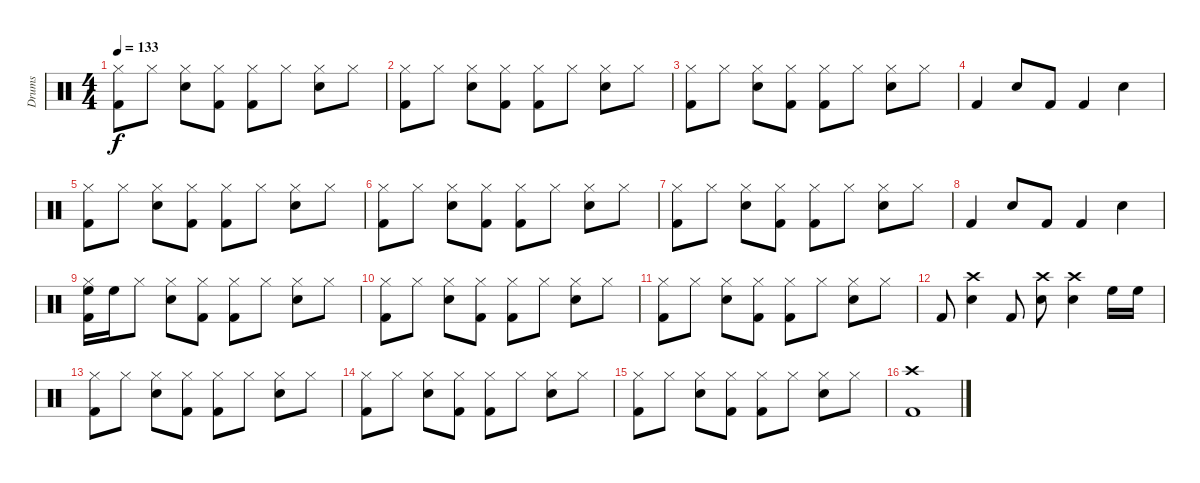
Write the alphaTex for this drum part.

\track ("Drums" "Drums") {instrument percussion}
\staff {score}
\articulation defaults
\ts (4 4)
\tempo 133
\clef neutral
\ks c
("Kick (hit) 2" "Hi-Hat (closed)").8{dy f} "Hi-Hat (closed)".8 ("Snare (hit) 2" "Hi-Hat (closed)").8 ("Kick (hit) 2" "Hi-Hat (closed)").8 ("Kick (hit) 2" "Hi-Hat (closed)").8 "Hi-Hat (closed)".8 ("Snare (hit) 2" "Hi-Hat (closed)").8 "Hi-Hat (closed)".8 |
("Kick (hit) 2" "Hi-Hat (closed)").8 "Hi-Hat (closed)".8 ("Snare (hit) 2" "Hi-Hat (closed)").8 ("Kick (hit) 2" "Hi-Hat (closed)").8 ("Kick (hit) 2" "Hi-Hat (closed)").8 "Hi-Hat (closed)".8 ("Snare (hit) 2" "Hi-Hat (closed)").8 "Hi-Hat (closed)".8 |
("Kick (hit) 2" "Hi-Hat (closed)").8 "Hi-Hat (closed)".8 ("Snare (hit) 2" "Hi-Hat (closed)").8 ("Kick (hit) 2" "Hi-Hat (closed)").8 ("Kick (hit) 2" "Hi-Hat (closed)").8 "Hi-Hat (closed)".8 ("Snare (hit) 2" "Hi-Hat (closed)").8 "Hi-Hat (closed)".8 |
"Kick (hit) 2".4 "Snare (hit) 2".8 "Kick (hit) 2".8 "Kick (hit) 2".4 "Snare (hit) 2".4 |
("Kick (hit) 2" "Hi-Hat (closed)").8 "Hi-Hat (closed)".8 ("Snare (hit) 2" "Hi-Hat (closed)").8 ("Kick (hit) 2" "Hi-Hat (closed)").8 ("Kick (hit) 2" "Hi-Hat (closed)").8 "Hi-Hat (closed)".8 ("Snare (hit) 2" "Hi-Hat (closed)").8 "Hi-Hat (closed)".8 |
("Kick (hit) 2" "Hi-Hat (closed)").8 "Hi-Hat (closed)".8 ("Snare (hit) 2" "Hi-Hat (closed)").8 ("Kick (hit) 2" "Hi-Hat (closed)").8 ("Kick (hit) 2" "Hi-Hat (closed)").8 "Hi-Hat (closed)".8 ("Snare (hit) 2" "Hi-Hat (closed)").8 "Hi-Hat (closed)".8 |
("Kick (hit) 2" "Hi-Hat (closed)").8 "Hi-Hat (closed)".8 ("Snare (hit) 2" "Hi-Hat (closed)").8 ("Kick (hit) 2" "Hi-Hat (closed)").8 ("Kick (hit) 2" "Hi-Hat (closed)").8 "Hi-Hat (closed)".8 ("Snare (hit) 2" "Hi-Hat (closed)").8 "Hi-Hat (closed)".8 |
"Kick (hit) 2".4 "Snare (hit) 2".8 "Kick (hit) 2".8 "Kick (hit) 2".4 "Snare (hit) 2".4 |
("Kick (hit) 2" "High Floor Tom (hit)" "Hi-Hat (closed)").16 "High Floor Tom (hit)".16 "Hi-Hat (closed)".8 ("Snare (hit) 2" "Hi-Hat (closed)").8 ("Kick (hit) 2" "Hi-Hat (closed)").8 ("Kick (hit) 2" "Hi-Hat (closed)").8 "Hi-Hat (closed)".8 ("Snare (hit) 2" "Hi-Hat (closed)").8 "Hi-Hat (closed)".8 |
("Kick (hit) 2" "Hi-Hat (closed)").8 "Hi-Hat (closed)".8 ("Snare (hit) 2" "Hi-Hat (closed)").8 ("Kick (hit) 2" "Hi-Hat (closed)").8 ("Kick (hit) 2" "Hi-Hat (closed)").8 "Hi-Hat (closed)".8 ("Snare (hit) 2" "Hi-Hat (closed)").8 "Hi-Hat (closed)".8 |
("Kick (hit) 2" "Hi-Hat (closed)").8 "Hi-Hat (closed)".8 ("Snare (hit) 2" "Hi-Hat (closed)").8 ("Kick (hit) 2" "Hi-Hat (closed)").8 ("Kick (hit) 2" "Hi-Hat (closed)").8 "Hi-Hat (closed)".8 ("Snare (hit) 2" "Hi-Hat (closed)").8 "Hi-Hat (closed)".8 |
"Kick (hit) 2".8 ("Snare (hit) 2" "Crash high (hit)").4 "Kick (hit) 2".8 ("Snare (hit) 2" "Crash high (hit)").8 ("Snare (hit) 2" "Crash high (hit)").4 "High Floor Tom (hit)".16 "High Floor Tom (hit)".16 |
("Kick (hit) 2" "Hi-Hat (closed)").8 "Hi-Hat (closed)".8 ("Snare (hit) 2" "Hi-Hat (closed)").8 ("Kick (hit) 2" "Hi-Hat (closed)").8 ("Kick (hit) 2" "Hi-Hat (closed)").8 "Hi-Hat (closed)".8 ("Snare (hit) 2" "Hi-Hat (closed)").8 "Hi-Hat (closed)".8 |
("Kick (hit) 2" "Hi-Hat (closed)").8 "Hi-Hat (closed)".8 ("Snare (hit) 2" "Hi-Hat (closed)").8 ("Kick (hit) 2" "Hi-Hat (closed)").8 ("Kick (hit) 2" "Hi-Hat (closed)").8 "Hi-Hat (closed)".8 ("Snare (hit) 2" "Hi-Hat (closed)").8 "Hi-Hat (closed)".8 |
("Kick (hit) 2" "Hi-Hat (closed)").8 "Hi-Hat (closed)".8 ("Snare (hit) 2" "Hi-Hat (closed)").8 ("Kick (hit) 2" "Hi-Hat (closed)").8 ("Kick (hit) 2" "Hi-Hat (closed)").8 "Hi-Hat (closed)".8 ("Snare (hit) 2" "Hi-Hat (closed)").8 "Hi-Hat (closed)".8 |
("Kick (hit) 2" "Crash high (hit)").1
